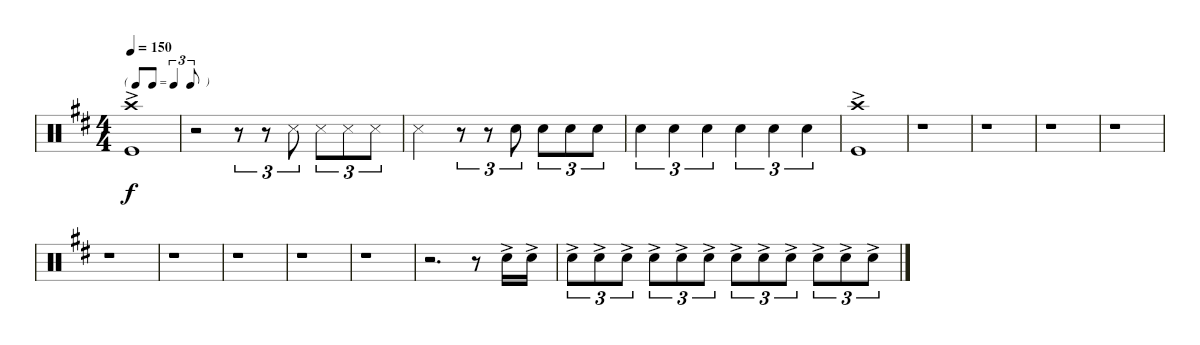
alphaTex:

\bracketExtendMode nobrackets
\singleTrackTrackNamePolicy hidden
\multiTrackTrackNamePolicy hidden
\firstSystemTrackNameMode fullname
\firstSystemTrackNameOrientation horizontal
\otherSystemsTrackNameOrientation horizontal
\defaultBarNumberDisplay Hide
\track ("Drumkit" "Drums") {instrument percussion}
\staff {score}
\articulation defaults
\ts (4 4)
\tf triplet8th
\tempo 150
\clef neutral
\ks d
("Kick (hit)"{ac} "Crash high (hit)").1{dy f} |
r.2 r.8{tu (3 2)} r.8{tu (3 2)} "Snare (side stick) 3".8{tu (3 2)} "Snare (side stick) 3".8{tu (3 2)} "Snare (side stick) 3".8{tu (3 2)} "Snare (side stick) 3".8{tu (3 2)} |
"Snare (side stick) 3".2 r.8{tu (3 2)} r.8{tu (3 2)} "Snare (hit) 2".8{tu (3 2)} "Snare (hit) 2".8{tu (3 2)} "Snare (hit) 2".8{tu (3 2)} "Snare (hit) 2".8{tu (3 2)} |
"Snare (hit) 2".4{tu (3 2)} "Snare (hit) 2".4{tu (3 2)} "Snare (hit) 2".4{tu (3 2)} "Snare (hit) 2".4{tu (3 2)} "Snare (hit) 2".4{tu (3 2)} "Snare (hit) 2".4{tu (3 2)} |
("Kick (hit)"{ac} "Crash high (hit)").1 |
r.1 |
r.1 |
r.1 |
r.1 |
r.1 |
r.1 |
r.1 |
r.1 |
r.1 |
r.2{d} r.8 "Snare (hit) 2"{ac}.16 "Snare (hit) 2"{ac}.16 |
"Snare (hit) 2"{ac}.8{tu (3 2)} "Snare (hit) 2"{ac}.8{tu (3 2)} "Snare (hit) 2"{ac}.8{tu (3 2)} "Snare (hit) 2"{ac}.8{tu (3 2)} "Snare (hit) 2"{ac}.8{tu (3 2)} "Snare (hit) 2"{ac}.8{tu (3 2)} "Snare (hit) 2"{ac}.8{tu (3 2)} "Snare (hit) 2"{ac}.8{tu (3 2)} "Snare (hit) 2"{ac}.8{tu (3 2)} "Snare (hit) 2"{ac}.8{tu (3 2)} "Snare (hit) 2"{ac}.8{tu (3 2)} "Snare (hit) 2"{ac}.8{tu (3 2)}
